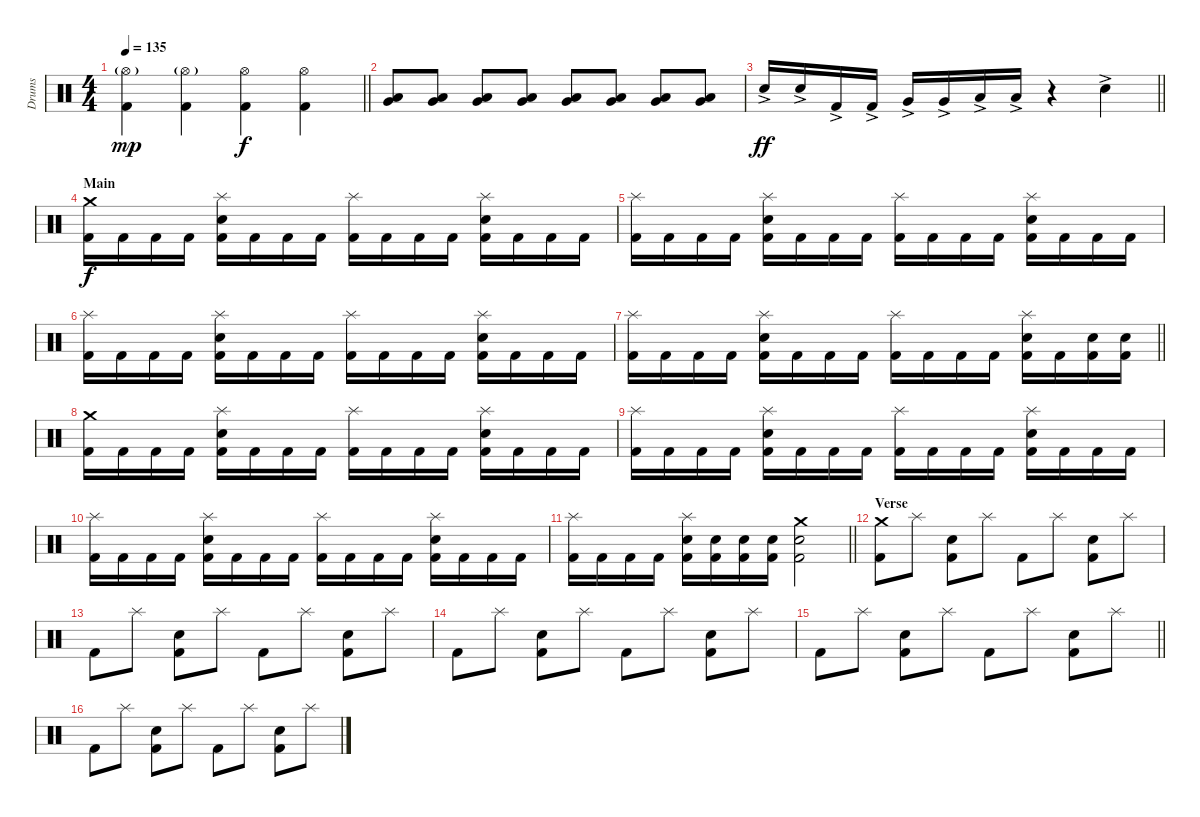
\track ("Drums" "Drums") {instrument percussion}
\staff {score}
\articulation defaults
\ts (4 4)
\tempo 135
\clef neutral
\barLineRight lightlight
\ks c
("Kick (hit) 2" "Hi-Hat (open)"{g}).4{dy mp} ("Kick (hit) 2" "Hi-Hat (open)"{g}).4 ("Kick (hit) 2" "Hi-Hat (open)").4{dy f} ("Kick (hit) 2" "Hi-Hat (open)").4 |
\section ("" "")
("Very Low Tom (hit)" "Low Floor Tom (hit)").8 ("Very Low Tom (hit)" "Low Floor Tom (hit)").8 ("Very Low Tom (hit)" "Low Floor Tom (hit)").8 ("Very Low Tom (hit)" "Low Floor Tom (hit)").8 ("Very Low Tom (hit)" "Low Floor Tom (hit)").8 ("Very Low Tom (hit)" "Low Floor Tom (hit)").8 ("Very Low Tom (hit)" "Low Floor Tom (hit)").8 ("Very Low Tom (hit)" "Low Floor Tom (hit)").8 |
\barLineRight lightlight "Snare (hit) 2"{ac}.16{dy ff} "Snare (hit) 2"{ac}.16 "Kick (hit) 2"{ac}.16 "Kick (hit) 2"{ac}.16 "Very Low Tom (hit)"{ac}.16 "Very Low Tom (hit)"{ac}.16 "Low Floor Tom (hit)"{ac}.16 "Low Floor Tom (hit)"{ac}.16
r.4 "Snare (hit) 2"{ac}.4 |
\section ("" "Main")
("Kick (hit) 2" "Crash medium (hit)").16{dy f} "Kick (hit) 2".16 "Kick (hit) 2".16 "Kick (hit) 2".16 ("Kick (hit) 2" "Snare (hit) 2" "Splash (hit)").16 "Kick (hit) 2".16 "Kick (hit) 2".16 "Kick (hit) 2".16 ("Kick (hit) 2" "Splash (hit)").16 "Kick (hit) 2".16 "Kick (hit) 2".16 "Kick (hit) 2".16 ("Kick (hit) 2" "Snare (hit) 2" "Splash (hit)").16 "Kick (hit) 2".16 "Kick (hit) 2".16 "Kick (hit) 2".16 |
("Kick (hit) 2" "Splash (hit)").16 "Kick (hit) 2".16 "Kick (hit) 2".16 "Kick (hit) 2".16 ("Kick (hit) 2" "Snare (hit) 2" "Splash (hit)").16 "Kick (hit) 2".16 "Kick (hit) 2".16 "Kick (hit) 2".16 ("Kick (hit) 2" "Splash (hit)").16 "Kick (hit) 2".16 "Kick (hit) 2".16 "Kick (hit) 2".16 ("Kick (hit) 2" "Snare (hit) 2" "Splash (hit)").16 "Kick (hit) 2".16 "Kick (hit) 2".16 "Kick (hit) 2".16 |
("Kick (hit) 2" "Splash (hit)").16 "Kick (hit) 2".16 "Kick (hit) 2".16 "Kick (hit) 2".16 ("Kick (hit) 2" "Snare (hit) 2" "Splash (hit)").16 "Kick (hit) 2".16 "Kick (hit) 2".16 "Kick (hit) 2".16 ("Kick (hit) 2" "Splash (hit)").16 "Kick (hit) 2".16 "Kick (hit) 2".16 "Kick (hit) 2".16 ("Kick (hit) 2" "Snare (hit) 2" "Splash (hit)").16 "Kick (hit) 2".16 "Kick (hit) 2".16 "Kick (hit) 2".16 |
\barLineRight lightlight
("Kick (hit) 2" "Splash (hit)").16 "Kick (hit) 2".16 "Kick (hit) 2".16 "Kick (hit) 2".16 ("Kick (hit) 2" "Snare (hit) 2" "Splash (hit)").16 "Kick (hit) 2".16 "Kick (hit) 2".16 "Kick (hit) 2".16 ("Kick (hit) 2" "Splash (hit)").16 "Kick (hit) 2".16 "Kick (hit) 2".16 "Kick (hit) 2".16 ("Kick (hit) 2" "Snare (hit) 2" "Splash (hit)").16 "Kick (hit) 2".16 ("Kick (hit) 2" "Snare (hit) 2").16 ("Kick (hit) 2" "Snare (hit) 2").16 |
\section ("" "")
("Kick (hit) 2" "Crash medium (hit)").16 "Kick (hit) 2".16 "Kick (hit) 2".16 "Kick (hit) 2".16 ("Kick (hit) 2" "Snare (hit) 2" "Splash (hit)").16 "Kick (hit) 2".16 "Kick (hit) 2".16 "Kick (hit) 2".16 ("Kick (hit) 2" "Splash (hit)").16 "Kick (hit) 2".16 "Kick (hit) 2".16 "Kick (hit) 2".16 ("Kick (hit) 2" "Snare (hit) 2" "Splash (hit)").16 "Kick (hit) 2".16 "Kick (hit) 2".16 "Kick (hit) 2".16 |
("Kick (hit) 2" "Splash (hit)").16 "Kick (hit) 2".16 "Kick (hit) 2".16 "Kick (hit) 2".16 ("Kick (hit) 2" "Snare (hit) 2" "Splash (hit)").16 "Kick (hit) 2".16 "Kick (hit) 2".16 "Kick (hit) 2".16 ("Kick (hit) 2" "Splash (hit)").16 "Kick (hit) 2".16 "Kick (hit) 2".16 "Kick (hit) 2".16 ("Kick (hit) 2" "Snare (hit) 2" "Splash (hit)").16 "Kick (hit) 2".16 "Kick (hit) 2".16 "Kick (hit) 2".16 |
("Kick (hit) 2" "Splash (hit)").16 "Kick (hit) 2".16 "Kick (hit) 2".16 "Kick (hit) 2".16 ("Kick (hit) 2" "Snare (hit) 2" "Splash (hit)").16 "Kick (hit) 2".16 "Kick (hit) 2".16 "Kick (hit) 2".16 ("Kick (hit) 2" "Splash (hit)").16 "Kick (hit) 2".16 "Kick (hit) 2".16 "Kick (hit) 2".16 ("Kick (hit) 2" "Snare (hit) 2" "Splash (hit)").16 "Kick (hit) 2".16 "Kick (hit) 2".16 "Kick (hit) 2".16 |
\barLineRight lightlight
("Kick (hit) 2" "Splash (hit)").16 "Kick (hit) 2".16 "Kick (hit) 2".16 "Kick (hit) 2".16 ("Kick (hit) 2" "Snare (hit) 2" "Splash (hit)").16 ("Kick (hit) 2" "Snare (hit) 2").16 ("Kick (hit) 2" "Snare (hit) 2").16 ("Kick (hit) 2" "Snare (hit) 2").16 ("Kick (hit) 2" "Snare (hit) 2" "Crash medium (hit)").2 |
\section ("" "Verse")
("Kick (hit) 2" "Crash medium (hit)").8 "Splash (hit)".8 ("Kick (hit) 2" "Snare (hit) 2").8 "Splash (hit)".8 "Kick (hit) 2".8 "Splash (hit)".8 ("Kick (hit) 2" "Snare (hit) 2").8 "Splash (hit)".8 |
"Kick (hit) 2".8 "Splash (hit)".8 ("Kick (hit) 2" "Snare (hit) 2").8 "Splash (hit)".8 "Kick (hit) 2".8 "Splash (hit)".8 ("Kick (hit) 2" "Snare (hit) 2").8 "Splash (hit)".8 |
"Kick (hit) 2".8 "Splash (hit)".8 ("Kick (hit) 2" "Snare (hit) 2").8 "Splash (hit)".8 "Kick (hit) 2".8 "Splash (hit)".8 ("Kick (hit) 2" "Snare (hit) 2").8 "Splash (hit)".8 |
\barLineRight lightlight "Kick (hit) 2".8 "Splash (hit)".8
("Kick (hit) 2" "Snare (hit) 2").8 "Splash (hit)".8 "Kick (hit) 2".8 "Splash (hit)".8 ("Kick (hit) 2" "Snare (hit) 2").8 "Splash (hit)".8 |
\section ("" "")
"Kick (hit) 2".8 "Splash (hit)".8 ("Kick (hit) 2" "Snare (hit) 2").8 "Splash (hit)".8 "Kick (hit) 2".8 "Splash (hit)".8 ("Kick (hit) 2" "Snare (hit) 2").8 "Splash (hit)".8
